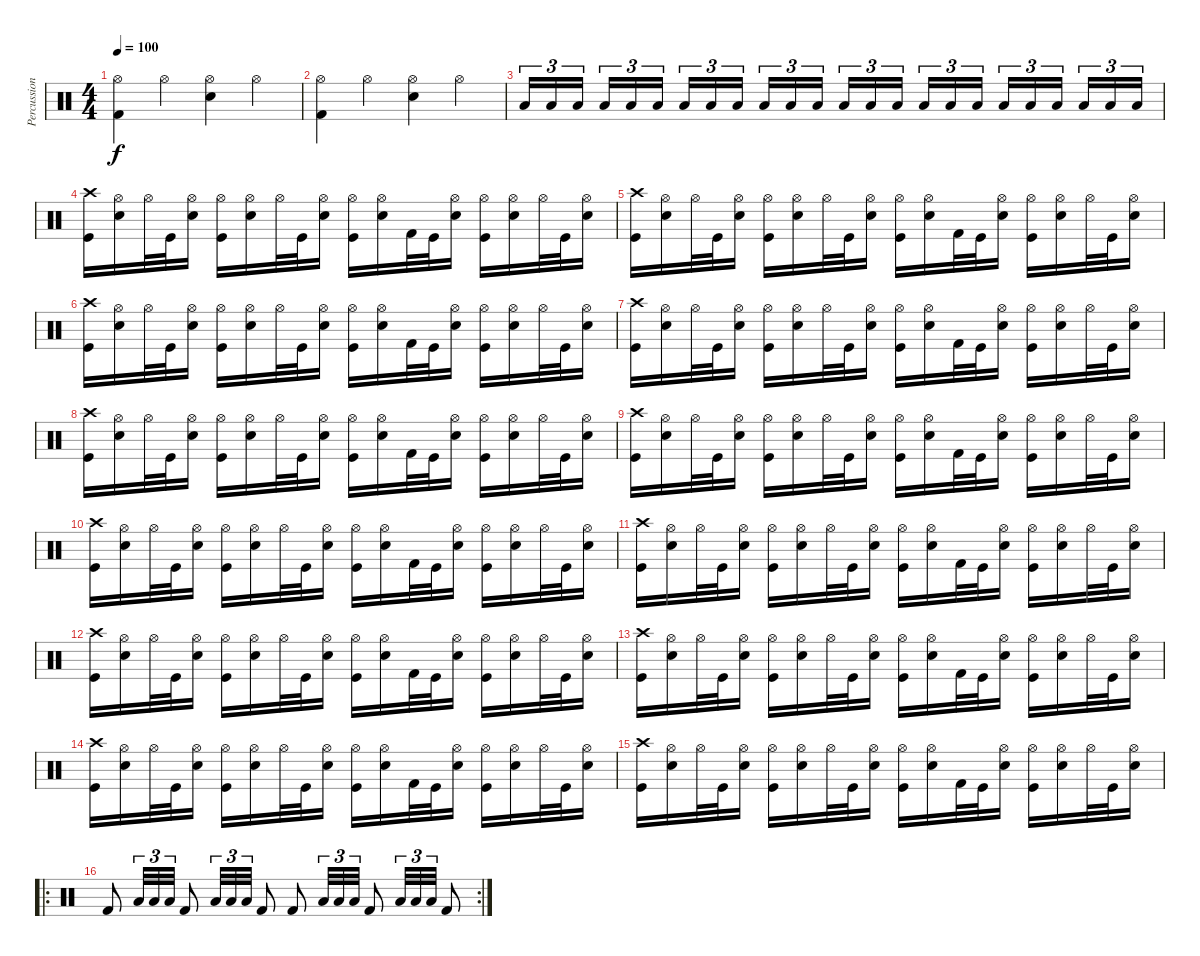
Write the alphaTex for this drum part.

\track ("Percussion" "Percussion") {instrument percussion}
\staff {score}
\articulation defaults
\ts (4 4)
\tempo 100
\clef neutral
\ks c
("Hi-Hat (open)" "Kick (hit) 2").4{dy f} "Hi-Hat (open)".4 ("Hi-Hat (open)" "Snare (hit) 2").4 "Hi-Hat (open)".4 |
("Hi-Hat (open)" "Kick (hit) 2").4 "Hi-Hat (open)".4 ("Hi-Hat (open)" "Snare (hit) 2").4 "Hi-Hat (open)".4 |
"Low Tom (hit)".16{tu (3 2)} "Low Tom (hit)".16{tu (3 2)} "Low Tom (hit)".16{tu (3 2)} "Low Tom (hit)".16{tu (3 2)} "Low Tom (hit)".16{tu (3 2)} "Low Tom (hit)".16{tu (3 2)} "Low Tom (hit)".16{tu (3 2)} "Low Tom (hit)".16{tu (3 2)} "Low Tom (hit)".16{tu (3 2)} "Low Tom (hit)".16{tu (3 2)} "Low Tom (hit)".16{tu (3 2)} "Low Tom (hit)".16{tu (3 2)} "Low Tom (hit)".16{tu (3 2)} "Low Tom (hit)".16{tu (3 2)} "Low Tom (hit)".16{tu (3 2)} "Low Tom (hit)".16{tu (3 2)} "Low Tom (hit)".16{tu (3 2)} "Low Tom (hit)".16{tu (3 2)} "Low Tom (hit)".16{tu (3 2)} "Low Tom (hit)".16{tu (3 2)} "Low Tom (hit)".16{tu (3 2)} "Low Tom (hit)".16{tu (3 2)} "Low Tom (hit)".16{tu (3 2)} "Low Tom (hit)".16{tu (3 2)} |
("Crash high (hit)" "Kick (hit)").16 ("Hi-Hat (open)" "Snare (hit) 2").16 "Hi-Hat (open)".32 "Kick (hit)".32 ("Hi-Hat (open)" "Snare (hit) 2").16 ("Hi-Hat (open)" "Kick (hit)").16 ("Hi-Hat (open)" "Snare (hit) 2").16 "Hi-Hat (open)".32 "Kick (hit)".32 ("Hi-Hat (open)" "Snare (hit) 2").16 ("Hi-Hat (open)" "Kick (hit)").16 ("Hi-Hat (open)" "Snare (hit) 2").16 "Kick (hit) 2".32 "Kick (hit)".32 ("Hi-Hat (open)" "Snare (hit) 2").16 ("Hi-Hat (open)" "Kick (hit)").16 ("Hi-Hat (open)" "Snare (hit) 2").16 "Hi-Hat (open)".32 "Kick (hit)".32 ("Hi-Hat (open)" "Snare (hit) 2").16 |
("Crash high (hit)" "Kick (hit)").16 ("Hi-Hat (open)" "Snare (hit) 2").16 "Hi-Hat (open)".32 "Kick (hit)".32 ("Hi-Hat (open)" "Snare (hit) 2").16 ("Hi-Hat (open)" "Kick (hit)").16 ("Hi-Hat (open)" "Snare (hit) 2").16 "Hi-Hat (open)".32 "Kick (hit)".32 ("Hi-Hat (open)" "Snare (hit) 2").16 ("Hi-Hat (open)" "Kick (hit)").16 ("Hi-Hat (open)" "Snare (hit) 2").16 "Kick (hit) 2".32 "Kick (hit)".32 ("Hi-Hat (open)" "Snare (hit) 2").16 ("Hi-Hat (open)" "Kick (hit)").16 ("Hi-Hat (open)" "Snare (hit) 2").16 "Hi-Hat (open)".32 "Kick (hit)".32 ("Hi-Hat (open)" "Snare (hit) 2").16 |
("Crash high (hit)" "Kick (hit)").16 ("Hi-Hat (open)" "Snare (hit) 2").16 "Hi-Hat (open)".32 "Kick (hit)".32 ("Hi-Hat (open)" "Snare (hit) 2").16 ("Hi-Hat (open)" "Kick (hit)").16 ("Hi-Hat (open)" "Snare (hit) 2").16 "Hi-Hat (open)".32 "Kick (hit)".32 ("Hi-Hat (open)" "Snare (hit) 2").16 ("Hi-Hat (open)" "Kick (hit)").16 ("Hi-Hat (open)" "Snare (hit) 2").16 "Kick (hit) 2".32 "Kick (hit)".32 ("Hi-Hat (open)" "Snare (hit) 2").16 ("Hi-Hat (open)" "Kick (hit)").16 ("Hi-Hat (open)" "Snare (hit) 2").16 "Hi-Hat (open)".32 "Kick (hit)".32 ("Hi-Hat (open)" "Snare (hit) 2").16 |
("Crash high (hit)" "Kick (hit)").16 ("Hi-Hat (open)" "Snare (hit) 2").16 "Hi-Hat (open)".32 "Kick (hit)".32 ("Hi-Hat (open)" "Snare (hit) 2").16 ("Hi-Hat (open)" "Kick (hit)").16 ("Hi-Hat (open)" "Snare (hit) 2").16 "Hi-Hat (open)".32 "Kick (hit)".32 ("Hi-Hat (open)" "Snare (hit) 2").16 ("Hi-Hat (open)" "Kick (hit)").16 ("Hi-Hat (open)" "Snare (hit) 2").16 "Kick (hit) 2".32 "Kick (hit)".32 ("Hi-Hat (open)" "Snare (hit) 2").16 ("Hi-Hat (open)" "Kick (hit)").16 ("Hi-Hat (open)" "Snare (hit) 2").16 "Hi-Hat (open)".32 "Kick (hit)".32 ("Hi-Hat (open)" "Snare (hit) 2").16 |
("Crash high (hit)" "Kick (hit)").16 ("Hi-Hat (open)" "Snare (hit) 2").16 "Hi-Hat (open)".32 "Kick (hit)".32 ("Hi-Hat (open)" "Snare (hit) 2").16 ("Hi-Hat (open)" "Kick (hit)").16 ("Hi-Hat (open)" "Snare (hit) 2").16 "Hi-Hat (open)".32 "Kick (hit)".32 ("Hi-Hat (open)" "Snare (hit) 2").16 ("Hi-Hat (open)" "Kick (hit)").16 ("Hi-Hat (open)" "Snare (hit) 2").16 "Kick (hit) 2".32 "Kick (hit)".32 ("Hi-Hat (open)" "Snare (hit) 2").16 ("Hi-Hat (open)" "Kick (hit)").16 ("Hi-Hat (open)" "Snare (hit) 2").16 "Hi-Hat (open)".32 "Kick (hit)".32 ("Hi-Hat (open)" "Snare (hit) 2").16 |
("Crash high (hit)" "Kick (hit)").16 ("Hi-Hat (open)" "Snare (hit) 2").16 "Hi-Hat (open)".32 "Kick (hit)".32 ("Hi-Hat (open)" "Snare (hit) 2").16 ("Hi-Hat (open)" "Kick (hit)").16 ("Hi-Hat (open)" "Snare (hit) 2").16 "Hi-Hat (open)".32 "Kick (hit)".32 ("Hi-Hat (open)" "Snare (hit) 2").16 ("Hi-Hat (open)" "Kick (hit)").16 ("Hi-Hat (open)" "Snare (hit) 2").16 "Kick (hit) 2".32 "Kick (hit)".32 ("Hi-Hat (open)" "Snare (hit) 2").16 ("Hi-Hat (open)" "Kick (hit)").16 ("Hi-Hat (open)" "Snare (hit) 2").16 "Hi-Hat (open)".32 "Kick (hit)".32 ("Hi-Hat (open)" "Snare (hit) 2").16 |
("Crash high (hit)" "Kick (hit)").16 ("Hi-Hat (open)" "Snare (hit) 2").16 "Hi-Hat (open)".32 "Kick (hit)".32 ("Hi-Hat (open)" "Snare (hit) 2").16 ("Hi-Hat (open)" "Kick (hit)").16 ("Hi-Hat (open)" "Snare (hit) 2").16 "Hi-Hat (open)".32 "Kick (hit)".32 ("Hi-Hat (open)" "Snare (hit) 2").16 ("Hi-Hat (open)" "Kick (hit)").16 ("Hi-Hat (open)" "Snare (hit) 2").16 "Kick (hit) 2".32 "Kick (hit)".32 ("Hi-Hat (open)" "Snare (hit) 2").16 ("Hi-Hat (open)" "Kick (hit)").16 ("Hi-Hat (open)" "Snare (hit) 2").16 "Hi-Hat (open)".32 "Kick (hit)".32 ("Hi-Hat (open)" "Snare (hit) 2").16 |
("Crash high (hit)" "Kick (hit)").16 ("Hi-Hat (open)" "Snare (hit) 2").16 "Hi-Hat (open)".32 "Kick (hit)".32 ("Hi-Hat (open)" "Snare (hit) 2").16 ("Hi-Hat (open)" "Kick (hit)").16 ("Hi-Hat (open)" "Snare (hit) 2").16 "Hi-Hat (open)".32 "Kick (hit)".32 ("Hi-Hat (open)" "Snare (hit) 2").16 ("Hi-Hat (open)" "Kick (hit)").16 ("Hi-Hat (open)" "Snare (hit) 2").16 "Kick (hit) 2".32 "Kick (hit)".32 ("Hi-Hat (open)" "Snare (hit) 2").16 ("Hi-Hat (open)" "Kick (hit)").16 ("Hi-Hat (open)" "Snare (hit) 2").16 "Hi-Hat (open)".32 "Kick (hit)".32 ("Hi-Hat (open)" "Snare (hit) 2").16 |
("Crash high (hit)" "Kick (hit)").16 ("Hi-Hat (open)" "Snare (hit) 2").16 "Hi-Hat (open)".32 "Kick (hit)".32 ("Hi-Hat (open)" "Snare (hit) 2").16 ("Hi-Hat (open)" "Kick (hit)").16 ("Hi-Hat (open)" "Snare (hit) 2").16 "Hi-Hat (open)".32 "Kick (hit)".32 ("Hi-Hat (open)" "Snare (hit) 2").16 ("Hi-Hat (open)" "Kick (hit)").16 ("Hi-Hat (open)" "Snare (hit) 2").16 "Kick (hit) 2".32 "Kick (hit)".32 ("Hi-Hat (open)" "Snare (hit) 2").16 ("Hi-Hat (open)" "Kick (hit)").16 ("Hi-Hat (open)" "Snare (hit) 2").16 "Hi-Hat (open)".32 "Kick (hit)".32 ("Hi-Hat (open)" "Snare (hit) 2").16 |
("Crash high (hit)" "Kick (hit)").16 ("Hi-Hat (open)" "Snare (hit) 2").16 "Hi-Hat (open)".32 "Kick (hit)".32 ("Hi-Hat (open)" "Snare (hit) 2").16 ("Hi-Hat (open)" "Kick (hit)").16 ("Hi-Hat (open)" "Snare (hit) 2").16 "Hi-Hat (open)".32 "Kick (hit)".32 ("Hi-Hat (open)" "Snare (hit) 2").16 ("Hi-Hat (open)" "Kick (hit)").16 ("Hi-Hat (open)" "Snare (hit) 2").16 "Kick (hit) 2".32 "Kick (hit)".32 ("Hi-Hat (open)" "Snare (hit) 2").16 ("Hi-Hat (open)" "Kick (hit)").16 ("Hi-Hat (open)" "Snare (hit) 2").16 "Hi-Hat (open)".32 "Kick (hit)".32 ("Hi-Hat (open)" "Snare (hit) 2").16 |
("Crash high (hit)" "Kick (hit)").16 ("Hi-Hat (open)" "Snare (hit) 2").16 "Hi-Hat (open)".32 "Kick (hit)".32 ("Hi-Hat (open)" "Snare (hit) 2").16 ("Hi-Hat (open)" "Kick (hit)").16 ("Hi-Hat (open)" "Snare (hit) 2").16 "Hi-Hat (open)".32 "Kick (hit)".32 ("Hi-Hat (open)" "Snare (hit) 2").16 ("Hi-Hat (open)" "Kick (hit)").16 ("Hi-Hat (open)" "Snare (hit) 2").16 "Kick (hit) 2".32 "Kick (hit)".32 ("Hi-Hat (open)" "Snare (hit) 2").16 ("Hi-Hat (open)" "Kick (hit)").16 ("Hi-Hat (open)" "Snare (hit) 2").16 "Hi-Hat (open)".32 "Kick (hit)".32 ("Hi-Hat (open)" "Snare (hit) 2").16 |
("Crash high (hit)" "Kick (hit)").16 ("Hi-Hat (open)" "Snare (hit) 2").16 "Hi-Hat (open)".32 "Kick (hit)".32 ("Hi-Hat (open)" "Snare (hit) 2").16 ("Hi-Hat (open)" "Kick (hit)").16 ("Hi-Hat (open)" "Snare (hit) 2").16 "Hi-Hat (open)".32 "Kick (hit)".32 ("Hi-Hat (open)" "Snare (hit) 2").16 ("Hi-Hat (open)" "Kick (hit)").16 ("Hi-Hat (open)" "Snare (hit) 2").16 "Kick (hit) 2".32 "Kick (hit)".32 ("Hi-Hat (open)" "Snare (hit) 2").16 ("Hi-Hat (open)" "Kick (hit)").16 ("Hi-Hat (open)" "Snare (hit) 2").16 "Hi-Hat (open)".32 "Kick (hit)".32 ("Hi-Hat (open)" "Snare (hit) 2").16 |
\ro
\rc 2 "Kick (hit) 2".8 "Low Tom (hit)".32{tu (3 2)} "Low Tom (hit)".32{tu (3 2)} "Low Tom (hit)".32{tu (3 2)} "Kick (hit) 2".8 "Low Tom (hit)".32{tu (3 2)} "Low Tom (hit)".32{tu (3 2)} "Low Tom (hit)".32{tu (3 2)} "Kick (hit) 2".8 "Kick (hit) 2".8 "Low Tom (hit)".32{tu (3 2)} "Low Tom (hit)".32{tu (3 2)} "Low Tom (hit)".32{tu (3 2)} "Kick (hit) 2".8 "Low Tom (hit)".32{tu (3 2)} "Low Tom (hit)".32{tu (3 2)} "Low Tom (hit)".32{tu (3 2)} "Kick (hit) 2".8
